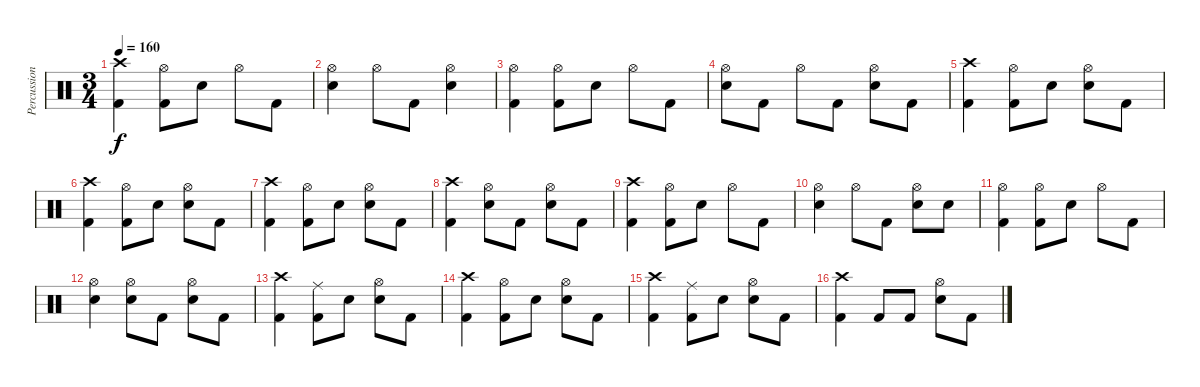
\track ("Percussion" "Percussion") {instrument percussion}
\staff {score}
\articulation defaults
\ts (3 4)
\tempo 160
\clef neutral
\ks c
("Crash high (hit)" "Kick (hit) 2").4{dy f} ("Hi-Hat (open)" "Kick (hit) 2").8 "Snare (hit) 2".8 "Hi-Hat (open)".8 "Kick (hit) 2".8 |
("Hi-Hat (open)" "Snare (hit) 2").4 "Hi-Hat (open)".8 "Kick (hit) 2".8 ("Hi-Hat (open)" "Snare (hit) 2").4 |
("Hi-Hat (open)" "Kick (hit) 2").4 ("Hi-Hat (open)" "Kick (hit) 2").8 "Snare (hit) 2".8 "Hi-Hat (open)".8 "Kick (hit) 2".8 |
("Hi-Hat (open)" "Snare (hit) 2").8 "Kick (hit) 2".8 "Hi-Hat (open)".8 "Kick (hit) 2".8 ("Hi-Hat (open)" "Snare (hit) 2").8 "Kick (hit) 2".8 |
("Crash high (hit)" "Kick (hit) 2").4 ("Hi-Hat (open)" "Kick (hit) 2").8 "Snare (hit) 2".8 ("Hi-Hat (open)" "Snare (hit) 2").8 "Kick (hit) 2".8 |
("Crash high (hit)" "Kick (hit) 2").4 ("Hi-Hat (open)" "Kick (hit) 2").8 "Snare (hit) 2".8 ("Hi-Hat (open)" "Snare (hit) 2").8 "Kick (hit) 2".8 |
("Crash high (hit)" "Kick (hit) 2").4 ("Hi-Hat (open)" "Kick (hit) 2").8 "Snare (hit) 2".8 ("Hi-Hat (open)" "Snare (hit) 2").8 "Kick (hit) 2".8 |
("Crash high (hit)" "Kick (hit) 2").4 ("Hi-Hat (open)" "Snare (hit) 2").8 "Kick (hit) 2".8 ("Hi-Hat (open)" "Snare (hit) 2").8 "Kick (hit) 2".8 |
("Crash high (hit)" "Kick (hit) 2").4 ("Hi-Hat (open)" "Kick (hit) 2").8 "Snare (hit) 2".8 "Hi-Hat (open)".8 "Kick (hit) 2".8 |
("Hi-Hat (open)" "Snare (hit) 2").4 "Hi-Hat (open)".8 "Kick (hit) 2".8 ("Hi-Hat (open)" "Snare (hit) 2").8 "Snare (hit) 2".8 |
("Hi-Hat (open)" "Kick (hit) 2").4 ("Hi-Hat (open)" "Kick (hit) 2").8 "Snare (hit) 2".8 "Hi-Hat (open)".8 "Kick (hit) 2".8 |
("Hi-Hat (open)" "Snare (hit) 2").4 ("Hi-Hat (open)" "Snare (hit) 2").8 "Kick (hit) 2".8 ("Hi-Hat (open)" "Snare (hit) 2").8 "Kick (hit) 2".8 |
("Crash high (hit)" "Kick (hit) 2").4 ("Ride (middle)" "Kick (hit) 2").8 "Snare (hit) 2".8 ("Hi-Hat (open)" "Snare (hit) 2").8 "Kick (hit) 2".8 |
("Crash high (hit)" "Kick (hit) 2").4 ("Hi-Hat (open)" "Kick (hit) 2").8 "Snare (hit) 2".8 ("Hi-Hat (open)" "Snare (hit) 2").8 "Kick (hit) 2".8 |
("Crash high (hit)" "Kick (hit) 2").4 ("Ride (middle)" "Kick (hit) 2").8 "Snare (hit) 2".8 ("Hi-Hat (open)" "Snare (hit) 2").8 "Kick (hit) 2".8 |
("Crash high (hit)" "Kick (hit) 2").4 "Kick (hit) 2".8 "Kick (hit) 2".8 ("Hi-Hat (open)" "Snare (hit) 2").8 "Kick (hit) 2".8
